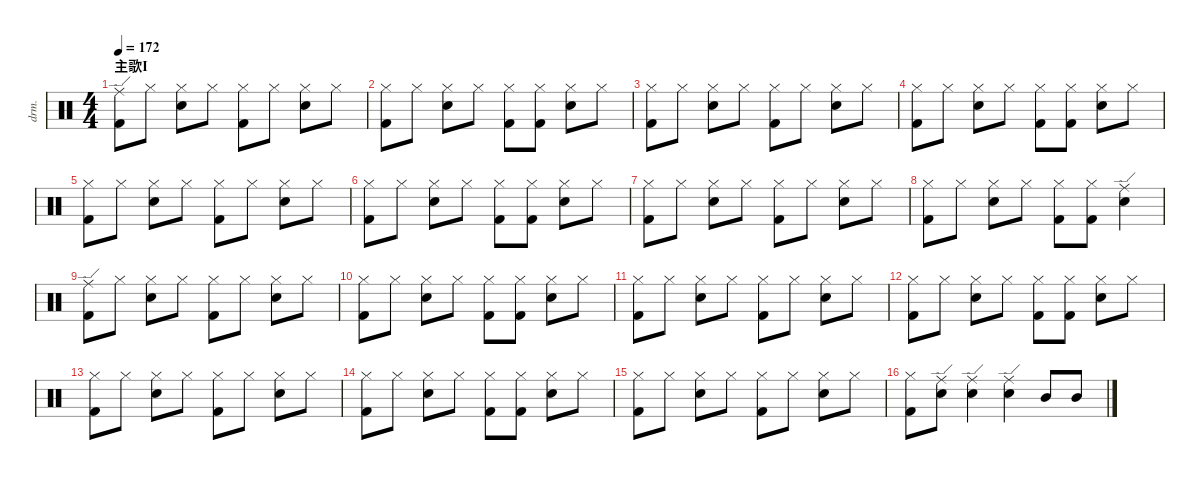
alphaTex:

\defaultSystemsLayout 4
\hideDynamics
\bracketExtendMode nobrackets
\track ("Drums" "drm.") {solo instrument percussion}
\staff {score}
\articulation defaults
\ts (4 4)
\section ("" "主歌I")
\tempo 172
\clef neutral
\ks c
("Kick (hit) 2" "Ride (edge)").8{dy ff beam Down} "Hi-Hat (closed)".8{dy mf beam Down} ("Hi-Hat (closed)" "Snare (hit) 2").8{beam Down} "Hi-Hat (closed)".8{beam Down} ("Hi-Hat (closed)" "Kick (hit) 2").8{beam Down} "Hi-Hat (closed)".8{beam Down} ("Hi-Hat (closed)" "Snare (hit) 2").8{beam Down} "Hi-Hat (closed)".8{beam Down} |
("Hi-Hat (closed)" "Kick (hit) 2").8{dy ff beam Down} "Hi-Hat (closed)".8{dy mf beam Down} ("Hi-Hat (closed)" "Snare (hit) 2").8{beam Down} "Hi-Hat (closed)".8{beam Down} ("Hi-Hat (closed)" "Kick (hit) 2").8{beam Down} ("Hi-Hat (closed)" "Kick (hit) 2").8{beam Down} ("Hi-Hat (closed)" "Snare (hit) 2").8{beam Down} "Hi-Hat (closed)".8{beam Down} |
("Hi-Hat (closed)" "Kick (hit) 2").8{beam Down} "Hi-Hat (closed)".8{beam Down} ("Hi-Hat (closed)" "Snare (hit) 2").8{beam Down} "Hi-Hat (closed)".8{beam Down} ("Hi-Hat (closed)" "Kick (hit) 2").8{beam Down} "Hi-Hat (closed)".8{beam Down} ("Hi-Hat (closed)" "Snare (hit) 2").8{beam Down} "Hi-Hat (closed)".8{beam Down} |
("Hi-Hat (closed)" "Kick (hit) 2").8{beam Down} "Hi-Hat (closed)".8{beam Down} ("Hi-Hat (closed)" "Snare (hit) 2").8{beam Down} "Hi-Hat (closed)".8{beam Down} ("Hi-Hat (closed)" "Kick (hit) 2").8{beam Down} ("Hi-Hat (closed)" "Kick (hit) 2").8{beam Down} ("Hi-Hat (closed)" "Snare (hit) 2").8{beam Down} "Hi-Hat (closed)".8{beam Down} |
("Hi-Hat (closed)" "Kick (hit) 2").8{beam Down} "Hi-Hat (closed)".8{beam Down} ("Hi-Hat (closed)" "Snare (hit) 2").8{beam Down} "Hi-Hat (closed)".8{beam Down} ("Hi-Hat (closed)" "Kick (hit) 2").8{beam Down} "Hi-Hat (closed)".8{beam Down} ("Hi-Hat (closed)" "Snare (hit) 2").8{beam Down} "Hi-Hat (closed)".8{beam Down} |
("Hi-Hat (closed)" "Kick (hit) 2").8{beam Down} "Hi-Hat (closed)".8{beam Down} ("Hi-Hat (closed)" "Snare (hit) 2").8{beam Down} "Hi-Hat (closed)".8{beam Down} ("Hi-Hat (closed)" "Kick (hit) 2").8{beam Down} ("Hi-Hat (closed)" "Kick (hit) 2").8{beam Down} ("Hi-Hat (closed)" "Snare (hit) 2").8{beam Down} "Hi-Hat (closed)".8{beam Down} |
("Hi-Hat (closed)" "Kick (hit) 2").8{beam Down} "Hi-Hat (closed)".8{beam Down} ("Hi-Hat (closed)" "Snare (hit) 2").8{beam Down} "Hi-Hat (closed)".8{beam Down} ("Hi-Hat (closed)" "Kick (hit) 2").8{beam Down} "Hi-Hat (closed)".8{beam Down} ("Hi-Hat (closed)" "Snare (hit) 2").8{beam Down} "Hi-Hat (closed)".8{beam Down} |
("Hi-Hat (closed)" "Kick (hit) 2").8{beam Down} "Hi-Hat (closed)".8{beam Down} ("Hi-Hat (closed)" "Snare (hit) 2").8{beam Down} "Hi-Hat (closed)".8{beam Down} ("Hi-Hat (closed)" "Kick (hit) 2").8{beam Down} ("Hi-Hat (closed)" "Kick (hit) 2").8{beam Down} ("Snare (hit) 2" "Ride (edge)").4{dy ff beam Down} |
("Kick (hit) 2" "Ride (edge)").8{beam Down} "Hi-Hat (closed)".8{dy mf beam Down} ("Hi-Hat (closed)" "Snare (hit) 2").8{beam Down} "Hi-Hat (closed)".8{beam Down} ("Hi-Hat (closed)" "Kick (hit) 2").8{beam Down} "Hi-Hat (closed)".8{beam Down} ("Hi-Hat (closed)" "Snare (hit) 2").8{beam Down} "Hi-Hat (closed)".8{beam Down} |
("Hi-Hat (closed)" "Kick (hit) 2").8{beam Down} "Hi-Hat (closed)".8{beam Down} ("Hi-Hat (closed)" "Snare (hit) 2").8{beam Down} "Hi-Hat (closed)".8{beam Down} ("Hi-Hat (closed)" "Kick (hit) 2").8{beam Down} ("Hi-Hat (closed)" "Kick (hit) 2").8{beam Down} ("Hi-Hat (closed)" "Snare (hit) 2").8{beam Down} "Hi-Hat (closed)".8{beam Down} |
("Hi-Hat (closed)" "Kick (hit) 2").8{beam Down} "Hi-Hat (closed)".8{beam Down} ("Hi-Hat (closed)" "Snare (hit) 2").8{beam Down} "Hi-Hat (closed)".8{beam Down} ("Hi-Hat (closed)" "Kick (hit) 2").8{beam Down} "Hi-Hat (closed)".8{beam Down} ("Hi-Hat (closed)" "Snare (hit) 2").8{beam Down} "Hi-Hat (closed)".8{beam Down} |
("Hi-Hat (closed)" "Kick (hit) 2").8{beam Down} "Hi-Hat (closed)".8{beam Down} ("Hi-Hat (closed)" "Snare (hit) 2").8{beam Down} "Hi-Hat (closed)".8{beam Down} ("Hi-Hat (closed)" "Kick (hit) 2").8{beam Down} ("Hi-Hat (closed)" "Kick (hit) 2").8{beam Down} ("Hi-Hat (closed)" "Snare (hit) 2").8{beam Down} "Hi-Hat (closed)".8{beam Down} |
("Hi-Hat (closed)" "Kick (hit) 2").8{beam Down} "Hi-Hat (closed)".8{beam Down} ("Hi-Hat (closed)" "Snare (hit) 2").8{beam Down} "Hi-Hat (closed)".8{beam Down} ("Hi-Hat (closed)" "Kick (hit) 2").8{beam Down} "Hi-Hat (closed)".8{beam Down} ("Hi-Hat (closed)" "Snare (hit) 2").8{beam Down} "Hi-Hat (closed)".8{beam Down} |
("Hi-Hat (closed)" "Kick (hit) 2").8{beam Down} "Hi-Hat (closed)".8{beam Down} ("Hi-Hat (closed)" "Snare (hit) 2").8{beam Down} "Hi-Hat (closed)".8{beam Down} ("Hi-Hat (closed)" "Kick (hit) 2").8{beam Down} ("Hi-Hat (closed)" "Kick (hit) 2").8{beam Down} ("Hi-Hat (closed)" "Snare (hit) 2").8{beam Down} "Hi-Hat (closed)".8{beam Down} |
("Hi-Hat (closed)" "Kick (hit) 2").8{beam Down} "Hi-Hat (closed)".8{beam Down} ("Hi-Hat (closed)" "Snare (hit) 2").8{beam Down} "Hi-Hat (closed)".8{beam Down} ("Hi-Hat (closed)" "Kick (hit) 2").8{beam Down} "Hi-Hat (closed)".8{beam Down} ("Hi-Hat (closed)" "Snare (hit) 2").8{beam Down} "Hi-Hat (closed)".8{beam Down} |
("Hi-Hat (closed)" "Kick (hit) 2").8{beam Down} ("Snare (hit) 2" "Ride (edge)").8{dy ff beam Down} ("Snare (hit) 2" "Ride (edge)").4{beam Down} ("Snare (hit) 2" "Ride (edge)").4{beam Down} "Mid Tom (hit)".8{beam Up} "Mid Tom (hit)".8{beam Up}
